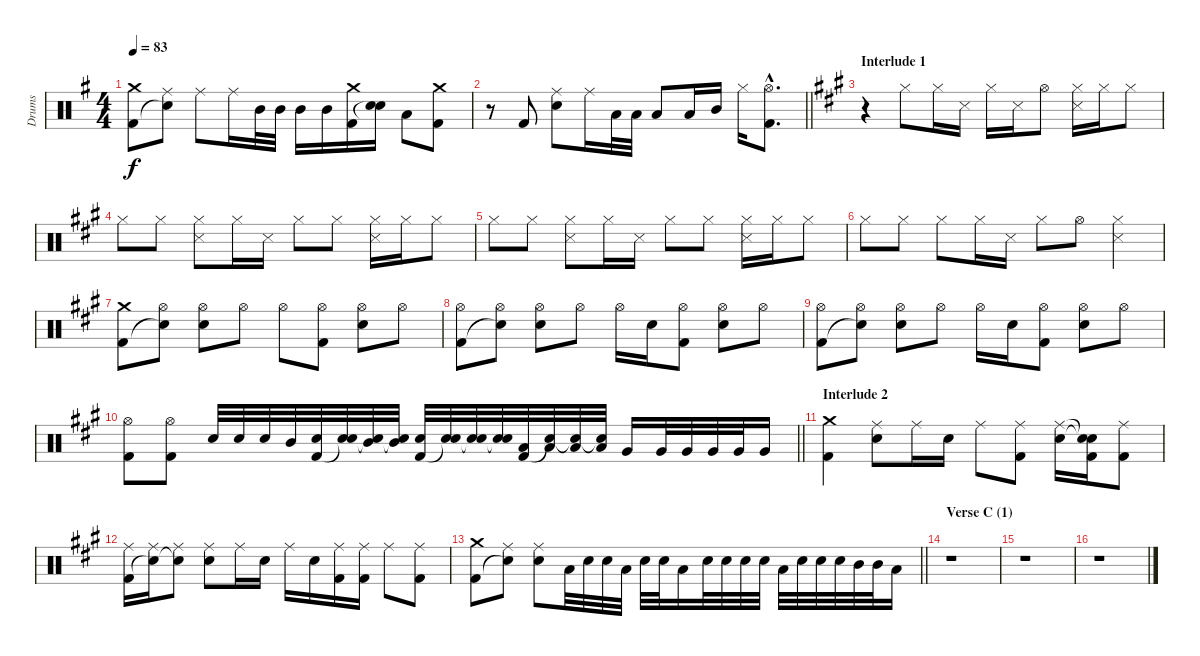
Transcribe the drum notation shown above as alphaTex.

\track ("Drums" "Drums") {instrument percussion}
\staff {score}
\articulation defaults
\ts (4 4)
\tempo 83
\clef neutral
\ks eminor
("Crash medium (hit)" "Kick (hit) 2").8{dy f} ("Ride (middle)" "Snare (hit)"{t}).8 "Ride (middle)".8 "Ride (middle)".16 "Mid Tom (hit)".32 "Mid Tom (hit)".32 "Mid Tom (hit)".16 "Mid Tom (hit)".16 ("Crash medium (hit)" "Kick (hit) 2").16 ("Electric Snare (hit)" "Snare (hit)"{t}).16 "Low Tom (hit)".8 ("Crash medium (hit)" "Kick (hit) 2").8 |
\barLineRight lightlight
r.8 "Kick (hit) 2".8 ("Ride (middle)" "Electric Snare (hit)").8 "Ride (middle)".16 "Low Tom (hit)".32 "Low Tom (hit)".32 "Low Tom (hit)".8 "Low Tom (hit)".16 "Mid Tom (hit)".16 "Hi-Hat (closed)".16 ("Hi-Hat (open)"{hac} "Kick (hit) 2"{hac}).8{d} |
\section ("" "Interlude 1")
\ks f#minor
r.4 "Hi-Hat (closed)".8 "Hi-Hat (closed)".16 "Snare (side stick) 3".16 "Hi-Hat (closed)".16 "Snare (side stick) 3".16 "Hi-Hat (open)".8 ("Hi-Hat (closed)" "Snare (side stick) 3").16 "Hi-Hat (closed)".16 "Hi-Hat (closed)".8 |
"Hi-Hat (closed)".8 "Hi-Hat (closed)".8 ("Hi-Hat (closed)" "Snare (side stick) 3").8 "Hi-Hat (closed)".16 "Snare (side stick) 3".16 "Hi-Hat (closed)".8 "Hi-Hat (closed)".8 ("Hi-Hat (closed)" "Snare (side stick) 3").16 "Hi-Hat (closed)".16 "Hi-Hat (closed)".8 |
"Hi-Hat (closed)".8 "Hi-Hat (closed)".8 ("Hi-Hat (closed)" "Snare (side stick) 3").8 "Hi-Hat (closed)".16 "Snare (side stick) 3".16 "Hi-Hat (closed)".8 "Hi-Hat (closed)".8 ("Hi-Hat (closed)" "Snare (side stick) 3").16 "Hi-Hat (closed)".16 "Hi-Hat (closed)".8 |
"Hi-Hat (closed)".8 "Hi-Hat (closed)".8 "Hi-Hat (closed)".8 "Hi-Hat (closed)".16 "Snare (side stick) 3".16 "Hi-Hat (closed)".8 "Hi-Hat (open)".8 ("Hi-Hat (closed)" "Snare (side stick) 3").4 |
("Crash medium (hit)" "Kick (hit) 2").8 ("Hi-Hat (open)" "Snare (hit)"{t}).8 ("Hi-Hat (open)" "Electric Snare (hit)").8 "Hi-Hat (open)".8 "Hi-Hat (open)".8 ("Hi-Hat (open)" "Kick (hit) 2").8 ("Hi-Hat (open)" "Electric Snare (hit)").8 "Hi-Hat (open)".8 |
("Hi-Hat (open)" "Kick (hit) 2").8 ("Hi-Hat (open)" "Snare (hit)"{t}).8 ("Hi-Hat (open)" "Electric Snare (hit)").8 "Hi-Hat (open)".8 "Hi-Hat (open)".16 "Electric Snare (hit)".16 ("Hi-Hat (open)" "Kick (hit) 2").8 ("Hi-Hat (open)" "Electric Snare (hit)").8 "Hi-Hat (open)".8 |
("Hi-Hat (open)" "Kick (hit) 2").8 ("Hi-Hat (open)" "Snare (hit)"{t}).8 ("Hi-Hat (open)" "Electric Snare (hit)").8 "Hi-Hat (open)".8 "Hi-Hat (open)".16 "Electric Snare (hit)".16 ("Hi-Hat (open)" "Kick (hit) 2").8 ("Hi-Hat (open)" "Electric Snare (hit)").8 "Hi-Hat (open)".8 |
\barLineRight lightlight
("Hi-Hat (open)" "Kick (hit) 2").8 ("Hi-Hat (open)" "Kick (hit) 2").8 "Electric Snare (hit)".32 "Electric Snare (hit)".32 "Electric Snare (hit)".32 "Mid Tom (hit)".32 ("Electric Snare (hit)" "Kick (hit) 2").32 ("Electric Snare (hit)" "Snare (hit)"{t}).32 ("Mid Tom (hit)" "Snare (hit)"{t}).32 ("Mid Tom (hit)" "Snare (hit)"{t}).32 ("Electric Snare (hit)" "Kick (hit) 2").32 ("Electric Snare (hit)" "Snare (hit)"{t}).32 ("Electric Snare (hit)" "Snare (hit)"{t}).32 ("Electric Snare (hit)" "Snare (hit)"{t}).32 ("Low Tom (hit)" "Kick (hit) 2").32 ("Low Tom (hit)" "Snare (hit)"{t}).32 ("Low Tom (hit)" "Snare (hit)"{t}).32 ("Low Tom (hit)" "Snare (hit)"{t}).32 "Very Low Tom (hit)".16 "Very Low Tom (hit)".32 "Very Low Tom (hit)".32 "Very Low Tom (hit)".32 "Very Low Tom (hit)".32 "Very Low Tom (hit)".16 |
\section ("" "Interlude 2")
("Crash medium (hit)" "Kick (hit) 2").4 ("Ride (middle)" "Electric Snare (hit)").8 "Ride (middle)".16 "Electric Snare (hit)".16 "Ride (middle)".8 ("Ride (middle)" "Kick (hit) 2").8 ("Ride (middle)" "Electric Snare (hit)").16 ("Snare (hit)"{t} "Snare (hit)"{t} "Kick (hit) 2").16 ("Ride (middle)" "Kick (hit) 2").8 |
("Ride (middle)" "Kick (hit) 2").16 ("Ride (middle)" "Snare (hit)"{t}).16 ("Ride (middle)" "Snare (hit)"{t}).8 ("Ride (middle)" "Electric Snare (hit)").8 "Ride (middle)".16 "Electric Snare (hit)".16 "Ride (middle)".16 "Electric Snare (hit)".16 ("Ride (middle)" "Kick (hit) 2").16 ("Ride (middle)" "Kick (hit) 2").16 "Ride (middle)".8 ("Ride (middle)" "Kick (hit) 2").8 |
\barLineRight lightlight
("Crash medium (hit)" "Kick (hit) 2").8 ("Ride (middle)" "Snare (hit)"{t}).8 ("Ride (middle)" "Electric Snare (hit)").8 "Low Tom (hit)".32 "Electric Snare (hit)".32 "Electric Snare (hit)".32 "Low Tom (hit)".32 "Electric Snare (hit)".32 "Electric Snare (hit)".32 "Low Floor Tom (hit)".16 "Electric Snare (hit)".32 "Electric Snare (hit)".32 "Electric Snare (hit)".32 "Electric Snare (hit)".32 "Low Tom (hit)".32 "Electric Snare (hit)".32 "Electric Snare (hit)".32 "Electric Snare (hit)".32 "Mid Tom (hit)".32 "Mid Tom (hit)".32 "Low Tom (hit)".16 |
\section ("" "Verse C (1)")
r.1 |
r.1 |
r.1
